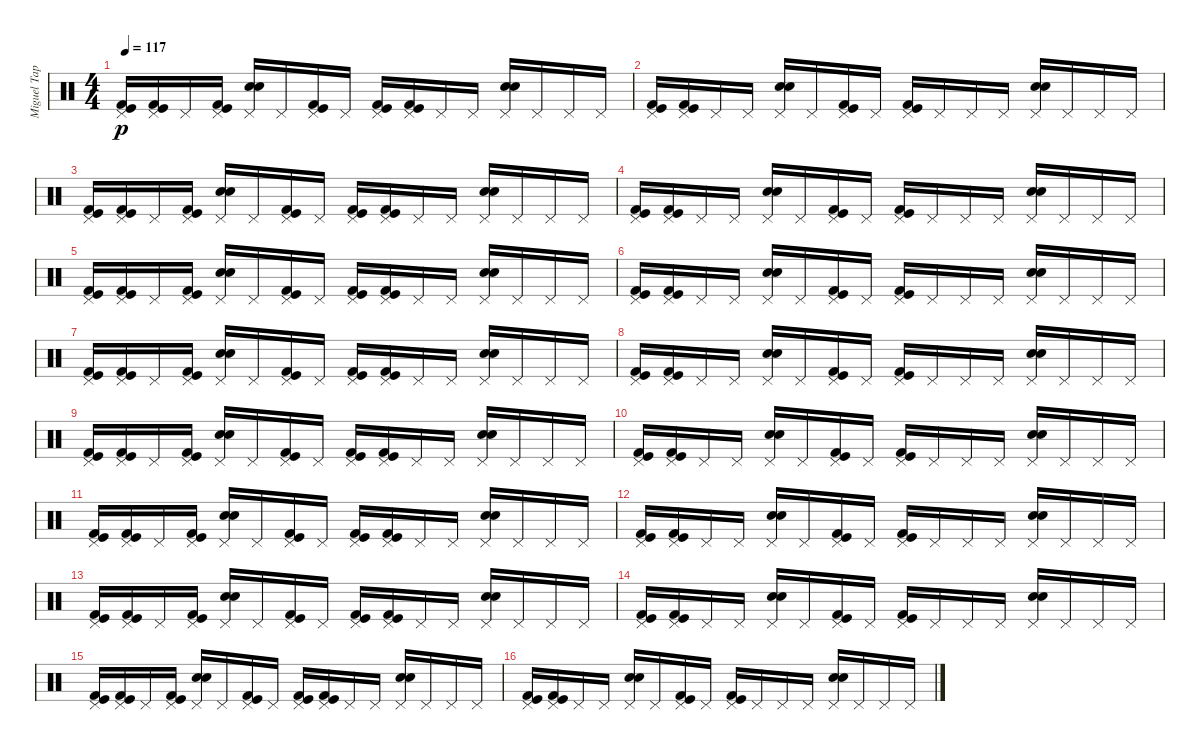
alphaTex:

\track ("Miguel Tapia" "Miguel Tap") {instrument percussion}
\staff {score}
\articulation defaults
\ts (4 4)
\tempo 117
\clef neutral
\ks c
("Kick (hit) 2" "Kick (hit)" "Pedal Hi-Hat (hit)").16{dy p} ("Kick (hit) 2" "Kick (hit)" "Pedal Hi-Hat (hit)").16 "Pedal Hi-Hat (hit)".16 ("Kick (hit) 2" "Kick (hit)" "Pedal Hi-Hat (hit)").16 ("Snare (hit) 2" "Electric Snare (hit)" "Pedal Hi-Hat (hit)").16 "Pedal Hi-Hat (hit)".16 ("Kick (hit) 2" "Kick (hit)" "Pedal Hi-Hat (hit)").16 "Pedal Hi-Hat (hit)".16 ("Kick (hit)" "Kick (hit) 2" "Pedal Hi-Hat (hit)").16 ("Kick (hit)" "Kick (hit) 2" "Pedal Hi-Hat (hit)").16 "Pedal Hi-Hat (hit)".16 "Pedal Hi-Hat (hit)".16 ("Snare (hit) 2" "Electric Snare (hit)" "Pedal Hi-Hat (hit)").16 "Pedal Hi-Hat (hit)".16 "Pedal Hi-Hat (hit)".16 "Pedal Hi-Hat (hit)".16 |
("Kick (hit) 2" "Kick (hit)" "Pedal Hi-Hat (hit)").16 ("Kick (hit) 2" "Kick (hit)" "Pedal Hi-Hat (hit)").16 "Pedal Hi-Hat (hit)".16 "Pedal Hi-Hat (hit)".16 ("Snare (hit) 2" "Electric Snare (hit)" "Pedal Hi-Hat (hit)").16 "Pedal Hi-Hat (hit)".16 ("Kick (hit) 2" "Kick (hit)" "Pedal Hi-Hat (hit)").16 "Pedal Hi-Hat (hit)".16 ("Kick (hit)" "Kick (hit) 2" "Pedal Hi-Hat (hit)").16 "Pedal Hi-Hat (hit)".16 "Pedal Hi-Hat (hit)".16 "Pedal Hi-Hat (hit)".16 ("Snare (hit) 2" "Electric Snare (hit)" "Pedal Hi-Hat (hit)").16 "Pedal Hi-Hat (hit)".16 "Pedal Hi-Hat (hit)".16 "Pedal Hi-Hat (hit)".16 |
("Kick (hit) 2" "Kick (hit)" "Pedal Hi-Hat (hit)").16 ("Kick (hit) 2" "Kick (hit)" "Pedal Hi-Hat (hit)").16 "Pedal Hi-Hat (hit)".16 ("Kick (hit) 2" "Kick (hit)" "Pedal Hi-Hat (hit)").16 ("Snare (hit) 2" "Electric Snare (hit)" "Pedal Hi-Hat (hit)").16 "Pedal Hi-Hat (hit)".16 ("Kick (hit) 2" "Kick (hit)" "Pedal Hi-Hat (hit)").16 "Pedal Hi-Hat (hit)".16 ("Kick (hit)" "Kick (hit) 2" "Pedal Hi-Hat (hit)").16 ("Kick (hit)" "Kick (hit) 2" "Pedal Hi-Hat (hit)").16 "Pedal Hi-Hat (hit)".16 "Pedal Hi-Hat (hit)".16 ("Snare (hit) 2" "Electric Snare (hit)" "Pedal Hi-Hat (hit)").16 "Pedal Hi-Hat (hit)".16 "Pedal Hi-Hat (hit)".16 "Pedal Hi-Hat (hit)".16 |
("Kick (hit) 2" "Kick (hit)" "Pedal Hi-Hat (hit)").16 ("Kick (hit) 2" "Kick (hit)" "Pedal Hi-Hat (hit)").16 "Pedal Hi-Hat (hit)".16 "Pedal Hi-Hat (hit)".16 ("Snare (hit) 2" "Electric Snare (hit)" "Pedal Hi-Hat (hit)").16 "Pedal Hi-Hat (hit)".16 ("Kick (hit) 2" "Kick (hit)" "Pedal Hi-Hat (hit)").16 "Pedal Hi-Hat (hit)".16 ("Kick (hit)" "Kick (hit) 2" "Pedal Hi-Hat (hit)").16 "Pedal Hi-Hat (hit)".16 "Pedal Hi-Hat (hit)".16 "Pedal Hi-Hat (hit)".16 ("Snare (hit) 2" "Electric Snare (hit)" "Pedal Hi-Hat (hit)").16 "Pedal Hi-Hat (hit)".16 "Pedal Hi-Hat (hit)".16 "Pedal Hi-Hat (hit)".16 |
("Kick (hit) 2" "Kick (hit)" "Pedal Hi-Hat (hit)").16 ("Kick (hit) 2" "Kick (hit)" "Pedal Hi-Hat (hit)").16 "Pedal Hi-Hat (hit)".16 ("Kick (hit) 2" "Kick (hit)" "Pedal Hi-Hat (hit)").16 ("Snare (hit) 2" "Electric Snare (hit)" "Pedal Hi-Hat (hit)").16 "Pedal Hi-Hat (hit)".16 ("Kick (hit) 2" "Kick (hit)" "Pedal Hi-Hat (hit)").16 "Pedal Hi-Hat (hit)".16 ("Kick (hit)" "Kick (hit) 2" "Pedal Hi-Hat (hit)").16 ("Kick (hit)" "Kick (hit) 2" "Pedal Hi-Hat (hit)").16 "Pedal Hi-Hat (hit)".16 "Pedal Hi-Hat (hit)".16 ("Snare (hit) 2" "Electric Snare (hit)" "Pedal Hi-Hat (hit)").16 "Pedal Hi-Hat (hit)".16 "Pedal Hi-Hat (hit)".16 "Pedal Hi-Hat (hit)".16 |
("Kick (hit) 2" "Kick (hit)" "Pedal Hi-Hat (hit)").16 ("Kick (hit) 2" "Kick (hit)" "Pedal Hi-Hat (hit)").16 "Pedal Hi-Hat (hit)".16 "Pedal Hi-Hat (hit)".16 ("Snare (hit) 2" "Electric Snare (hit)" "Pedal Hi-Hat (hit)").16 "Pedal Hi-Hat (hit)".16 ("Kick (hit) 2" "Kick (hit)" "Pedal Hi-Hat (hit)").16 "Pedal Hi-Hat (hit)".16 ("Kick (hit)" "Kick (hit) 2" "Pedal Hi-Hat (hit)").16 "Pedal Hi-Hat (hit)".16 "Pedal Hi-Hat (hit)".16 "Pedal Hi-Hat (hit)".16 ("Snare (hit) 2" "Electric Snare (hit)" "Pedal Hi-Hat (hit)").16 "Pedal Hi-Hat (hit)".16 "Pedal Hi-Hat (hit)".16 "Pedal Hi-Hat (hit)".16 |
("Kick (hit) 2" "Kick (hit)" "Pedal Hi-Hat (hit)").16 ("Kick (hit) 2" "Kick (hit)" "Pedal Hi-Hat (hit)").16 "Pedal Hi-Hat (hit)".16 ("Kick (hit) 2" "Kick (hit)" "Pedal Hi-Hat (hit)").16 ("Snare (hit) 2" "Electric Snare (hit)" "Pedal Hi-Hat (hit)").16 "Pedal Hi-Hat (hit)".16 ("Kick (hit) 2" "Kick (hit)" "Pedal Hi-Hat (hit)").16 "Pedal Hi-Hat (hit)".16 ("Kick (hit)" "Kick (hit) 2" "Pedal Hi-Hat (hit)").16 ("Kick (hit)" "Kick (hit) 2" "Pedal Hi-Hat (hit)").16 "Pedal Hi-Hat (hit)".16 "Pedal Hi-Hat (hit)".16 ("Snare (hit) 2" "Electric Snare (hit)" "Pedal Hi-Hat (hit)").16 "Pedal Hi-Hat (hit)".16 "Pedal Hi-Hat (hit)".16 "Pedal Hi-Hat (hit)".16 |
("Kick (hit) 2" "Kick (hit)" "Pedal Hi-Hat (hit)").16 ("Kick (hit) 2" "Kick (hit)" "Pedal Hi-Hat (hit)").16 "Pedal Hi-Hat (hit)".16 "Pedal Hi-Hat (hit)".16 ("Snare (hit) 2" "Electric Snare (hit)" "Pedal Hi-Hat (hit)").16 "Pedal Hi-Hat (hit)".16 ("Kick (hit) 2" "Kick (hit)" "Pedal Hi-Hat (hit)").16 "Pedal Hi-Hat (hit)".16 ("Kick (hit)" "Kick (hit) 2" "Pedal Hi-Hat (hit)").16 "Pedal Hi-Hat (hit)".16 "Pedal Hi-Hat (hit)".16 "Pedal Hi-Hat (hit)".16 ("Snare (hit) 2" "Electric Snare (hit)" "Pedal Hi-Hat (hit)").16 "Pedal Hi-Hat (hit)".16 "Pedal Hi-Hat (hit)".16 "Pedal Hi-Hat (hit)".16 |
("Kick (hit) 2" "Kick (hit)" "Pedal Hi-Hat (hit)").16 ("Kick (hit) 2" "Kick (hit)" "Pedal Hi-Hat (hit)").16 "Pedal Hi-Hat (hit)".16 ("Kick (hit) 2" "Kick (hit)" "Pedal Hi-Hat (hit)").16 ("Snare (hit) 2" "Electric Snare (hit)" "Pedal Hi-Hat (hit)").16 "Pedal Hi-Hat (hit)".16 ("Kick (hit) 2" "Kick (hit)" "Pedal Hi-Hat (hit)").16 "Pedal Hi-Hat (hit)".16 ("Kick (hit)" "Kick (hit) 2" "Pedal Hi-Hat (hit)").16 ("Kick (hit)" "Kick (hit) 2" "Pedal Hi-Hat (hit)").16 "Pedal Hi-Hat (hit)".16 "Pedal Hi-Hat (hit)".16 ("Snare (hit) 2" "Electric Snare (hit)" "Pedal Hi-Hat (hit)").16 "Pedal Hi-Hat (hit)".16 "Pedal Hi-Hat (hit)".16 "Pedal Hi-Hat (hit)".16 |
("Kick (hit) 2" "Kick (hit)" "Pedal Hi-Hat (hit)").16 ("Kick (hit) 2" "Kick (hit)" "Pedal Hi-Hat (hit)").16 "Pedal Hi-Hat (hit)".16 "Pedal Hi-Hat (hit)".16 ("Snare (hit) 2" "Electric Snare (hit)" "Pedal Hi-Hat (hit)").16 "Pedal Hi-Hat (hit)".16 ("Kick (hit) 2" "Kick (hit)" "Pedal Hi-Hat (hit)").16 "Pedal Hi-Hat (hit)".16 ("Kick (hit)" "Kick (hit) 2" "Pedal Hi-Hat (hit)").16 "Pedal Hi-Hat (hit)".16 "Pedal Hi-Hat (hit)".16 "Pedal Hi-Hat (hit)".16 ("Snare (hit) 2" "Electric Snare (hit)" "Pedal Hi-Hat (hit)").16 "Pedal Hi-Hat (hit)".16 "Pedal Hi-Hat (hit)".16 "Pedal Hi-Hat (hit)".16 |
("Kick (hit) 2" "Kick (hit)" "Pedal Hi-Hat (hit)").16 ("Kick (hit) 2" "Kick (hit)" "Pedal Hi-Hat (hit)").16 "Pedal Hi-Hat (hit)".16 ("Kick (hit) 2" "Kick (hit)" "Pedal Hi-Hat (hit)").16 ("Snare (hit) 2" "Electric Snare (hit)" "Pedal Hi-Hat (hit)").16 "Pedal Hi-Hat (hit)".16 ("Kick (hit) 2" "Kick (hit)" "Pedal Hi-Hat (hit)").16 "Pedal Hi-Hat (hit)".16 ("Kick (hit)" "Kick (hit) 2" "Pedal Hi-Hat (hit)").16 ("Kick (hit)" "Kick (hit) 2" "Pedal Hi-Hat (hit)").16 "Pedal Hi-Hat (hit)".16 "Pedal Hi-Hat (hit)".16 ("Snare (hit) 2" "Electric Snare (hit)" "Pedal Hi-Hat (hit)").16 "Pedal Hi-Hat (hit)".16 "Pedal Hi-Hat (hit)".16 "Pedal Hi-Hat (hit)".16 |
("Kick (hit) 2" "Kick (hit)" "Pedal Hi-Hat (hit)").16 ("Kick (hit) 2" "Kick (hit)" "Pedal Hi-Hat (hit)").16 "Pedal Hi-Hat (hit)".16 "Pedal Hi-Hat (hit)".16 ("Snare (hit) 2" "Electric Snare (hit)" "Pedal Hi-Hat (hit)").16 "Pedal Hi-Hat (hit)".16 ("Kick (hit) 2" "Kick (hit)" "Pedal Hi-Hat (hit)").16 "Pedal Hi-Hat (hit)".16 ("Kick (hit)" "Kick (hit) 2" "Pedal Hi-Hat (hit)").16 "Pedal Hi-Hat (hit)".16 "Pedal Hi-Hat (hit)".16 "Pedal Hi-Hat (hit)".16 ("Snare (hit) 2" "Electric Snare (hit)" "Pedal Hi-Hat (hit)").16 "Pedal Hi-Hat (hit)".16 "Pedal Hi-Hat (hit)".16 "Pedal Hi-Hat (hit)".16 |
("Kick (hit) 2" "Kick (hit)" "Pedal Hi-Hat (hit)").16 ("Kick (hit) 2" "Kick (hit)" "Pedal Hi-Hat (hit)").16 "Pedal Hi-Hat (hit)".16 ("Kick (hit) 2" "Kick (hit)" "Pedal Hi-Hat (hit)").16 ("Snare (hit) 2" "Electric Snare (hit)" "Pedal Hi-Hat (hit)").16 "Pedal Hi-Hat (hit)".16 ("Kick (hit) 2" "Kick (hit)" "Pedal Hi-Hat (hit)").16 "Pedal Hi-Hat (hit)".16 ("Kick (hit)" "Kick (hit) 2" "Pedal Hi-Hat (hit)").16 ("Kick (hit)" "Kick (hit) 2" "Pedal Hi-Hat (hit)").16 "Pedal Hi-Hat (hit)".16 "Pedal Hi-Hat (hit)".16 ("Snare (hit) 2" "Electric Snare (hit)" "Pedal Hi-Hat (hit)").16 "Pedal Hi-Hat (hit)".16 "Pedal Hi-Hat (hit)".16 "Pedal Hi-Hat (hit)".16 |
("Kick (hit) 2" "Kick (hit)" "Pedal Hi-Hat (hit)").16 ("Kick (hit) 2" "Kick (hit)" "Pedal Hi-Hat (hit)").16 "Pedal Hi-Hat (hit)".16 "Pedal Hi-Hat (hit)".16 ("Snare (hit) 2" "Electric Snare (hit)" "Pedal Hi-Hat (hit)").16 "Pedal Hi-Hat (hit)".16 ("Kick (hit) 2" "Kick (hit)" "Pedal Hi-Hat (hit)").16 "Pedal Hi-Hat (hit)".16 ("Kick (hit)" "Kick (hit) 2" "Pedal Hi-Hat (hit)").16 "Pedal Hi-Hat (hit)".16 "Pedal Hi-Hat (hit)".16 "Pedal Hi-Hat (hit)".16 ("Snare (hit) 2" "Electric Snare (hit)" "Pedal Hi-Hat (hit)").16 "Pedal Hi-Hat (hit)".16 "Pedal Hi-Hat (hit)".16 "Pedal Hi-Hat (hit)".16 |
("Kick (hit) 2" "Kick (hit)" "Pedal Hi-Hat (hit)").16 ("Kick (hit) 2" "Kick (hit)" "Pedal Hi-Hat (hit)").16 "Pedal Hi-Hat (hit)".16 ("Kick (hit) 2" "Kick (hit)" "Pedal Hi-Hat (hit)").16 ("Snare (hit) 2" "Electric Snare (hit)" "Pedal Hi-Hat (hit)").16 "Pedal Hi-Hat (hit)".16 ("Kick (hit) 2" "Kick (hit)" "Pedal Hi-Hat (hit)").16 "Pedal Hi-Hat (hit)".16 ("Kick (hit)" "Kick (hit) 2" "Pedal Hi-Hat (hit)").16 ("Kick (hit)" "Kick (hit) 2" "Pedal Hi-Hat (hit)").16 "Pedal Hi-Hat (hit)".16 "Pedal Hi-Hat (hit)".16 ("Snare (hit) 2" "Electric Snare (hit)" "Pedal Hi-Hat (hit)").16 "Pedal Hi-Hat (hit)".16 "Pedal Hi-Hat (hit)".16 "Pedal Hi-Hat (hit)".16 |
("Kick (hit) 2" "Kick (hit)" "Pedal Hi-Hat (hit)").16 ("Kick (hit) 2" "Kick (hit)" "Pedal Hi-Hat (hit)").16 "Pedal Hi-Hat (hit)".16 "Pedal Hi-Hat (hit)".16 ("Snare (hit) 2" "Electric Snare (hit)" "Pedal Hi-Hat (hit)").16 "Pedal Hi-Hat (hit)".16 ("Kick (hit) 2" "Kick (hit)" "Pedal Hi-Hat (hit)").16 "Pedal Hi-Hat (hit)".16 ("Kick (hit)" "Kick (hit) 2" "Pedal Hi-Hat (hit)").16 "Pedal Hi-Hat (hit)".16 "Pedal Hi-Hat (hit)".16 "Pedal Hi-Hat (hit)".16 ("Snare (hit) 2" "Electric Snare (hit)" "Pedal Hi-Hat (hit)").16 "Pedal Hi-Hat (hit)".16 "Pedal Hi-Hat (hit)".16 "Pedal Hi-Hat (hit)".16
